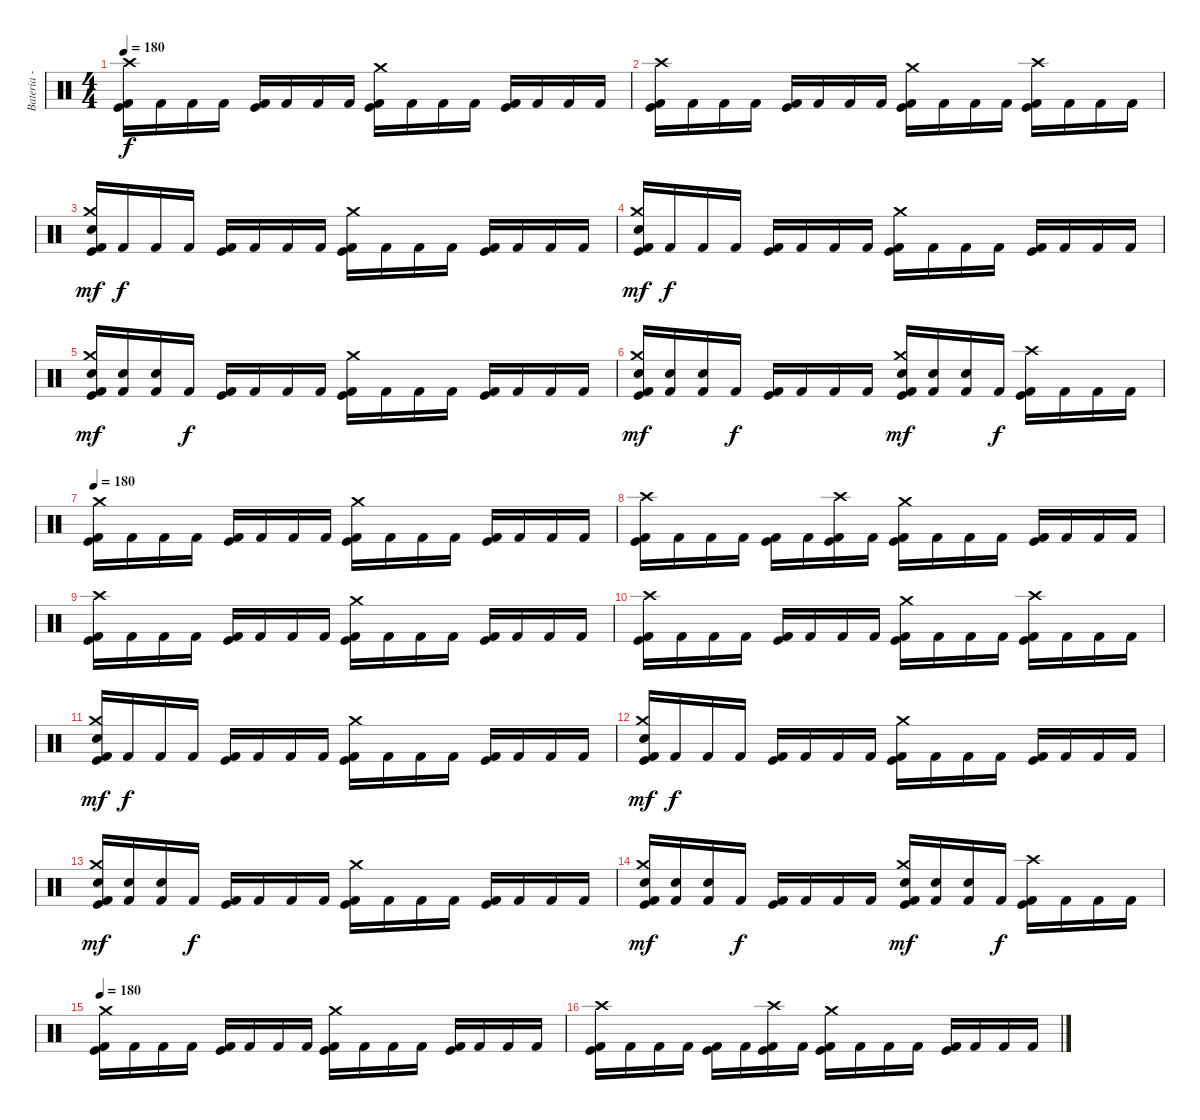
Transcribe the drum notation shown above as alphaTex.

\track ("Bateria - Drums" "Bateria - ") {instrument percussion}
\staff {score}
\articulation defaults
\ts (4 4)
\tempo 180
\clef neutral
\ks c
("Crash high (hit)" "Kick (hit)" "Kick (hit) 2").16{dy f} "Kick (hit) 2".16 "Kick (hit) 2".16 "Kick (hit) 2".16 ("Kick (hit)" "Kick (hit) 2").16 "Kick (hit) 2".16 "Kick (hit) 2".16 "Kick (hit) 2".16 ("Crash medium (hit)" "Kick (hit)" "Kick (hit) 2").16 "Kick (hit) 2".16 "Kick (hit) 2".16 "Kick (hit) 2".16 ("Kick (hit)" "Kick (hit) 2").16 "Kick (hit) 2".16 "Kick (hit) 2".16 "Kick (hit) 2".16 |
("Crash high (hit)" "Kick (hit)" "Kick (hit) 2").16 "Kick (hit) 2".16 "Kick (hit) 2".16 "Kick (hit) 2".16 ("Kick (hit)" "Kick (hit) 2").16 "Kick (hit) 2".16 "Kick (hit) 2".16 "Kick (hit) 2".16 ("Crash medium (hit)" "Kick (hit)" "Kick (hit) 2").16 "Kick (hit) 2".16 "Kick (hit) 2".16 "Kick (hit) 2".16 ("Crash high (hit)" "Kick (hit)" "Kick (hit) 2").16 "Kick (hit) 2".16 "Kick (hit) 2".16 "Kick (hit) 2".16 |
("Crash medium (hit)" "Snare (hit) 2" "Kick (hit)" "Kick (hit) 2").16{dy mf} "Kick (hit) 2".16{dy f} "Kick (hit) 2".16 "Kick (hit) 2".16 ("Kick (hit)" "Kick (hit) 2").16 "Kick (hit) 2".16 "Kick (hit) 2".16 "Kick (hit) 2".16 ("Crash medium (hit)" "Kick (hit)" "Kick (hit) 2").16 "Kick (hit) 2".16 "Kick (hit) 2".16 "Kick (hit) 2".16 ("Kick (hit)" "Kick (hit) 2").16 "Kick (hit) 2".16 "Kick (hit) 2".16 "Kick (hit) 2".16 |
("Crash medium (hit)" "Snare (hit) 2" "Kick (hit)" "Kick (hit) 2").16{dy mf} "Kick (hit) 2".16{dy f} "Kick (hit) 2".16 "Kick (hit) 2".16 ("Kick (hit)" "Kick (hit) 2").16 "Kick (hit) 2".16 "Kick (hit) 2".16 "Kick (hit) 2".16 ("Crash medium (hit)" "Kick (hit)" "Kick (hit) 2").16 "Kick (hit) 2".16 "Kick (hit) 2".16 "Kick (hit) 2".16 ("Kick (hit)" "Kick (hit) 2").16 "Kick (hit) 2".16 "Kick (hit) 2".16 "Kick (hit) 2".16 |
("Crash medium (hit)" "Snare (hit) 2" "Kick (hit)" "Kick (hit) 2").16{dy mf} ("Snare (hit) 2" "Kick (hit) 2").16 ("Snare (hit) 2" "Kick (hit) 2").16 "Kick (hit) 2".16{dy f} ("Kick (hit)" "Kick (hit) 2").16 "Kick (hit) 2".16 "Kick (hit) 2".16 "Kick (hit) 2".16 ("Crash medium (hit)" "Kick (hit)" "Kick (hit) 2").16 "Kick (hit) 2".16 "Kick (hit) 2".16 "Kick (hit) 2".16 ("Kick (hit)" "Kick (hit) 2").16 "Kick (hit) 2".16 "Kick (hit) 2".16 "Kick (hit) 2".16 |
("Crash medium (hit)" "Snare (hit) 2" "Kick (hit)" "Kick (hit) 2").16{dy mf} ("Snare (hit) 2" "Kick (hit) 2").16 ("Snare (hit) 2" "Kick (hit) 2").16 "Kick (hit) 2".16{dy f} ("Kick (hit)" "Kick (hit) 2").16 "Kick (hit) 2".16 "Kick (hit) 2".16 "Kick (hit) 2".16 ("Crash medium (hit)" "Snare (hit) 2" "Kick (hit)" "Kick (hit) 2").16{dy mf} ("Snare (hit) 2" "Kick (hit) 2").16 ("Snare (hit) 2" "Kick (hit) 2").16 "Kick (hit) 2".16{dy f} ("Crash high (hit)" "Kick (hit)" "Kick (hit) 2").16 "Kick (hit) 2".16 "Kick (hit) 2".16 "Kick (hit) 2".16 |
\tempo 180
("Crash medium (hit)" "Kick (hit)" "Kick (hit) 2").16 "Kick (hit) 2".16 "Kick (hit) 2".16 "Kick (hit) 2".16 ("Kick (hit)" "Kick (hit) 2").16 "Kick (hit) 2".16 "Kick (hit) 2".16 "Kick (hit) 2".16 ("Crash medium (hit)" "Kick (hit)" "Kick (hit) 2").16 "Kick (hit) 2".16 "Kick (hit) 2".16 "Kick (hit) 2".16 ("Kick (hit)" "Kick (hit) 2").16 "Kick (hit) 2".16 "Kick (hit) 2".16 "Kick (hit) 2".16 |
("Crash high (hit)" "Kick (hit)" "Kick (hit) 2").16 "Kick (hit) 2".16 "Kick (hit) 2".16 "Kick (hit) 2".16 ("Kick (hit)" "Kick (hit) 2").16 "Kick (hit) 2".16 ("Crash high (hit)" "Kick (hit)" "Kick (hit) 2").16 "Kick (hit) 2".16 ("Crash medium (hit)" "Kick (hit)" "Kick (hit) 2").16 "Kick (hit) 2".16 "Kick (hit) 2".16 "Kick (hit) 2".16 ("Kick (hit)" "Kick (hit) 2").16 "Kick (hit) 2".16 "Kick (hit) 2".16 "Kick (hit) 2".16 |
("Crash high (hit)" "Kick (hit)" "Kick (hit) 2").16 "Kick (hit) 2".16 "Kick (hit) 2".16 "Kick (hit) 2".16 ("Kick (hit)" "Kick (hit) 2").16 "Kick (hit) 2".16 "Kick (hit) 2".16 "Kick (hit) 2".16 ("Crash medium (hit)" "Kick (hit)" "Kick (hit) 2").16 "Kick (hit) 2".16 "Kick (hit) 2".16 "Kick (hit) 2".16 ("Kick (hit)" "Kick (hit) 2").16 "Kick (hit) 2".16 "Kick (hit) 2".16 "Kick (hit) 2".16 |
("Crash high (hit)" "Kick (hit)" "Kick (hit) 2").16 "Kick (hit) 2".16 "Kick (hit) 2".16 "Kick (hit) 2".16 ("Kick (hit)" "Kick (hit) 2").16 "Kick (hit) 2".16 "Kick (hit) 2".16 "Kick (hit) 2".16 ("Crash medium (hit)" "Kick (hit)" "Kick (hit) 2").16 "Kick (hit) 2".16 "Kick (hit) 2".16 "Kick (hit) 2".16 ("Crash high (hit)" "Kick (hit)" "Kick (hit) 2").16 "Kick (hit) 2".16 "Kick (hit) 2".16 "Kick (hit) 2".16 |
("Crash medium (hit)" "Snare (hit) 2" "Kick (hit)" "Kick (hit) 2").16{dy mf} "Kick (hit) 2".16{dy f} "Kick (hit) 2".16 "Kick (hit) 2".16 ("Kick (hit)" "Kick (hit) 2").16 "Kick (hit) 2".16 "Kick (hit) 2".16 "Kick (hit) 2".16 ("Crash medium (hit)" "Kick (hit)" "Kick (hit) 2").16 "Kick (hit) 2".16 "Kick (hit) 2".16 "Kick (hit) 2".16 ("Kick (hit)" "Kick (hit) 2").16 "Kick (hit) 2".16 "Kick (hit) 2".16 "Kick (hit) 2".16 |
("Crash medium (hit)" "Snare (hit) 2" "Kick (hit)" "Kick (hit) 2").16{dy mf} "Kick (hit) 2".16{dy f} "Kick (hit) 2".16 "Kick (hit) 2".16 ("Kick (hit)" "Kick (hit) 2").16 "Kick (hit) 2".16 "Kick (hit) 2".16 "Kick (hit) 2".16 ("Crash medium (hit)" "Kick (hit)" "Kick (hit) 2").16 "Kick (hit) 2".16 "Kick (hit) 2".16 "Kick (hit) 2".16 ("Kick (hit)" "Kick (hit) 2").16 "Kick (hit) 2".16 "Kick (hit) 2".16 "Kick (hit) 2".16 |
("Crash medium (hit)" "Snare (hit) 2" "Kick (hit)" "Kick (hit) 2").16{dy mf} ("Snare (hit) 2" "Kick (hit) 2").16 ("Snare (hit) 2" "Kick (hit) 2").16 "Kick (hit) 2".16{dy f} ("Kick (hit)" "Kick (hit) 2").16 "Kick (hit) 2".16 "Kick (hit) 2".16 "Kick (hit) 2".16 ("Crash medium (hit)" "Kick (hit)" "Kick (hit) 2").16 "Kick (hit) 2".16 "Kick (hit) 2".16 "Kick (hit) 2".16 ("Kick (hit)" "Kick (hit) 2").16 "Kick (hit) 2".16 "Kick (hit) 2".16 "Kick (hit) 2".16 |
("Crash medium (hit)" "Snare (hit) 2" "Kick (hit)" "Kick (hit) 2").16{dy mf} ("Snare (hit) 2" "Kick (hit) 2").16 ("Snare (hit) 2" "Kick (hit) 2").16 "Kick (hit) 2".16{dy f} ("Kick (hit)" "Kick (hit) 2").16 "Kick (hit) 2".16 "Kick (hit) 2".16 "Kick (hit) 2".16 ("Crash medium (hit)" "Snare (hit) 2" "Kick (hit)" "Kick (hit) 2").16{dy mf} ("Snare (hit) 2" "Kick (hit) 2").16 ("Snare (hit) 2" "Kick (hit) 2").16 "Kick (hit) 2".16{dy f} ("Crash high (hit)" "Kick (hit)" "Kick (hit) 2").16 "Kick (hit) 2".16 "Kick (hit) 2".16 "Kick (hit) 2".16 |
\tempo 180
("Crash medium (hit)" "Kick (hit)" "Kick (hit) 2").16 "Kick (hit) 2".16 "Kick (hit) 2".16 "Kick (hit) 2".16 ("Kick (hit)" "Kick (hit) 2").16 "Kick (hit) 2".16 "Kick (hit) 2".16 "Kick (hit) 2".16 ("Crash medium (hit)" "Kick (hit)" "Kick (hit) 2").16 "Kick (hit) 2".16 "Kick (hit) 2".16 "Kick (hit) 2".16 ("Kick (hit)" "Kick (hit) 2").16 "Kick (hit) 2".16 "Kick (hit) 2".16 "Kick (hit) 2".16 |
("Crash high (hit)" "Kick (hit)" "Kick (hit) 2").16 "Kick (hit) 2".16 "Kick (hit) 2".16 "Kick (hit) 2".16 ("Kick (hit)" "Kick (hit) 2").16 "Kick (hit) 2".16 ("Crash high (hit)" "Kick (hit)" "Kick (hit) 2").16 "Kick (hit) 2".16 ("Crash medium (hit)" "Kick (hit)" "Kick (hit) 2").16 "Kick (hit) 2".16 "Kick (hit) 2".16 "Kick (hit) 2".16 ("Kick (hit)" "Kick (hit) 2").16 "Kick (hit) 2".16 "Kick (hit) 2".16 "Kick (hit) 2".16
